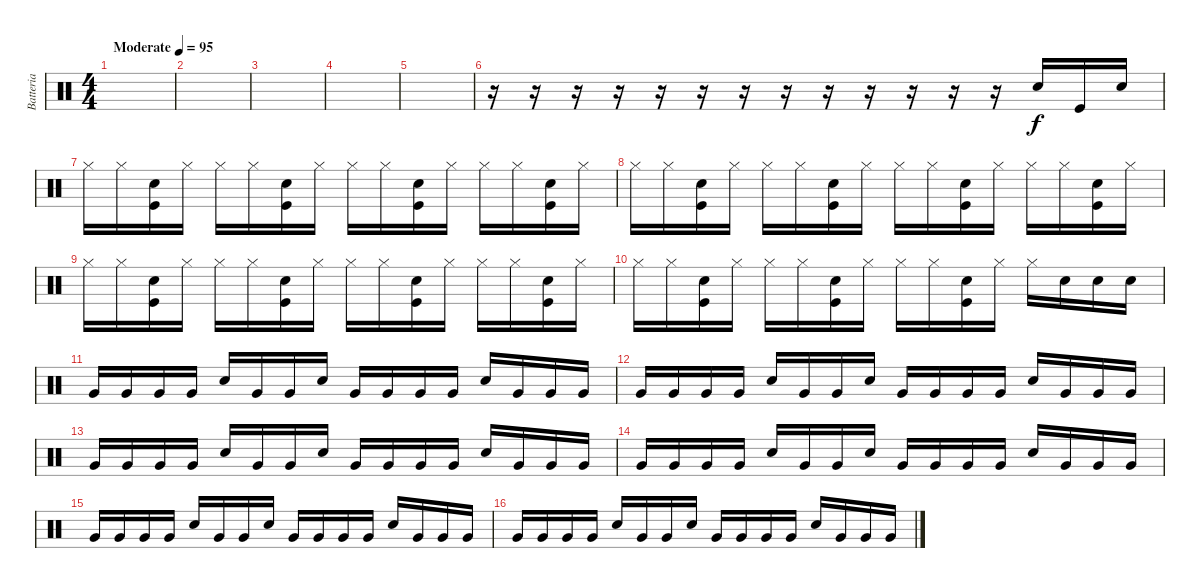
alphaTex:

\track ("Batteria" "Batteria") {instrument percussion}
\staff {score}
\articulation defaults
\ts (4 4)
\tempo (95 "Moderate")
\clef neutral
\ks c
|
|
|
|
|
r.16 r.16 r.16 r.16 r.16 r.16 r.16 r.16 r.16 r.16 r.16 r.16 r.16 "Electric Snare (hit)".16 "Kick (hit)".16 "Electric Snare (hit)".16 |
"Hi-Hat (closed)".16 "Hi-Hat (closed)".16 ("Electric Snare (hit)" "Kick (hit)").16 "Hi-Hat (closed)".16 "Hi-Hat (closed)".16 "Hi-Hat (closed)".16 ("Electric Snare (hit)" "Kick (hit)").16 "Hi-Hat (closed)".16 "Hi-Hat (closed)".16 "Hi-Hat (closed)".16 ("Electric Snare (hit)" "Kick (hit)").16 "Hi-Hat (closed)".16 "Hi-Hat (closed)".16 "Hi-Hat (closed)".16 ("Electric Snare (hit)" "Kick (hit)").16 "Hi-Hat (closed)".16 |
"Hi-Hat (closed)".16 "Hi-Hat (closed)".16 ("Electric Snare (hit)" "Kick (hit)").16 "Hi-Hat (closed)".16 "Hi-Hat (closed)".16 "Hi-Hat (closed)".16 ("Electric Snare (hit)" "Kick (hit)").16 "Hi-Hat (closed)".16 "Hi-Hat (closed)".16 "Hi-Hat (closed)".16 ("Electric Snare (hit)" "Kick (hit)").16 "Hi-Hat (closed)".16 "Hi-Hat (closed)".16 "Hi-Hat (closed)".16 ("Electric Snare (hit)" "Kick (hit)").16 "Hi-Hat (closed)".16 |
"Hi-Hat (closed)".16 "Hi-Hat (closed)".16 ("Electric Snare (hit)" "Kick (hit)").16 "Hi-Hat (closed)".16 "Hi-Hat (closed)".16 "Hi-Hat (closed)".16 ("Electric Snare (hit)" "Kick (hit)").16 "Hi-Hat (closed)".16 "Hi-Hat (closed)".16 "Hi-Hat (closed)".16 ("Electric Snare (hit)" "Kick (hit)").16 "Hi-Hat (closed)".16 "Hi-Hat (closed)".16 "Hi-Hat (closed)".16 ("Electric Snare (hit)" "Kick (hit)").16 "Hi-Hat (closed)".16 |
"Hi-Hat (closed)".16 "Hi-Hat (closed)".16 ("Electric Snare (hit)" "Kick (hit)").16 "Hi-Hat (closed)".16 "Hi-Hat (closed)".16 "Hi-Hat (closed)".16 ("Electric Snare (hit)" "Kick (hit)").16 "Hi-Hat (closed)".16 "Hi-Hat (closed)".16 "Hi-Hat (closed)".16 ("Electric Snare (hit)" "Kick (hit)").16 "Hi-Hat (closed)".16 "Hi-Hat (closed)".16 "Electric Snare (hit)".16 "Electric Snare (hit)".16 "Electric Snare (hit)".16 |
"Very Low Tom (hit)".16 "Very Low Tom (hit)".16 "Very Low Tom (hit)".16 "Very Low Tom (hit)".16 "Electric Snare (hit)".16 "Very Low Tom (hit)".16 "Very Low Tom (hit)".16 "Electric Snare (hit)".16 "Very Low Tom (hit)".16 "Very Low Tom (hit)".16 "Very Low Tom (hit)".16 "Very Low Tom (hit)".16 "Electric Snare (hit)".16 "Very Low Tom (hit)".16 "Very Low Tom (hit)".16 "Very Low Tom (hit)".16 |
"Very Low Tom (hit)".16 "Very Low Tom (hit)".16 "Very Low Tom (hit)".16 "Very Low Tom (hit)".16 "Electric Snare (hit)".16 "Very Low Tom (hit)".16 "Very Low Tom (hit)".16 "Electric Snare (hit)".16 "Very Low Tom (hit)".16 "Very Low Tom (hit)".16 "Very Low Tom (hit)".16 "Very Low Tom (hit)".16 "Electric Snare (hit)".16 "Very Low Tom (hit)".16 "Very Low Tom (hit)".16 "Very Low Tom (hit)".16 |
"Very Low Tom (hit)".16 "Very Low Tom (hit)".16 "Very Low Tom (hit)".16 "Very Low Tom (hit)".16 "Electric Snare (hit)".16 "Very Low Tom (hit)".16 "Very Low Tom (hit)".16 "Electric Snare (hit)".16 "Very Low Tom (hit)".16 "Very Low Tom (hit)".16 "Very Low Tom (hit)".16 "Very Low Tom (hit)".16 "Electric Snare (hit)".16 "Very Low Tom (hit)".16 "Very Low Tom (hit)".16 "Very Low Tom (hit)".16 |
"Very Low Tom (hit)".16 "Very Low Tom (hit)".16 "Very Low Tom (hit)".16 "Very Low Tom (hit)".16 "Electric Snare (hit)".16 "Very Low Tom (hit)".16 "Very Low Tom (hit)".16 "Electric Snare (hit)".16 "Very Low Tom (hit)".16 "Very Low Tom (hit)".16 "Very Low Tom (hit)".16 "Very Low Tom (hit)".16 "Electric Snare (hit)".16 "Very Low Tom (hit)".16 "Very Low Tom (hit)".16 "Very Low Tom (hit)".16 |
"Very Low Tom (hit)".16 "Very Low Tom (hit)".16 "Very Low Tom (hit)".16 "Very Low Tom (hit)".16 "Electric Snare (hit)".16 "Very Low Tom (hit)".16 "Very Low Tom (hit)".16 "Electric Snare (hit)".16 "Very Low Tom (hit)".16 "Very Low Tom (hit)".16 "Very Low Tom (hit)".16 "Very Low Tom (hit)".16 "Electric Snare (hit)".16 "Very Low Tom (hit)".16 "Very Low Tom (hit)".16 "Very Low Tom (hit)".16 |
"Very Low Tom (hit)".16 "Very Low Tom (hit)".16 "Very Low Tom (hit)".16 "Very Low Tom (hit)".16 "Electric Snare (hit)".16 "Very Low Tom (hit)".16 "Very Low Tom (hit)".16 "Electric Snare (hit)".16 "Very Low Tom (hit)".16 "Very Low Tom (hit)".16 "Very Low Tom (hit)".16 "Very Low Tom (hit)".16 "Electric Snare (hit)".16 "Very Low Tom (hit)".16 "Very Low Tom (hit)".16 "Very Low Tom (hit)".16
